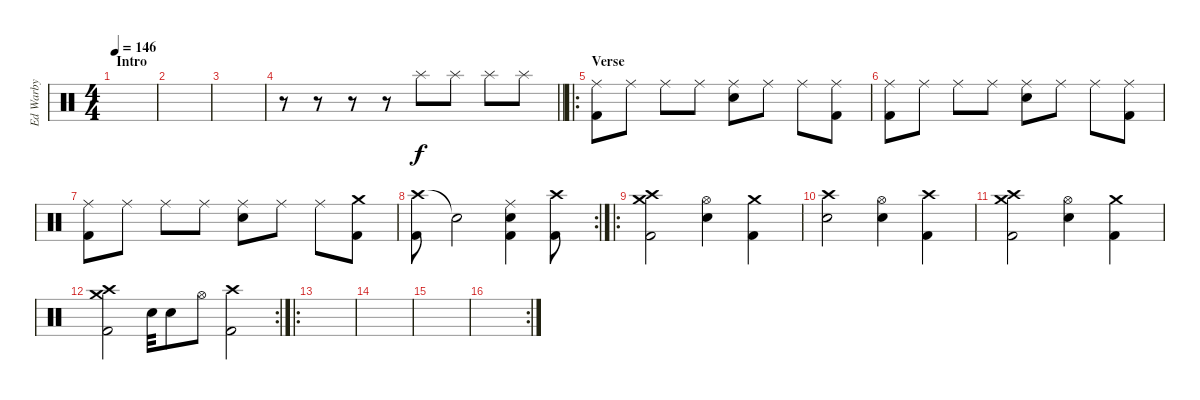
\track ("Ed Warby" "Ed Warby") {instrument percussion}
\staff {score}
\articulation defaults
\ts (4 4)
\section ("" "Intro")
\tempo 146
\clef neutral
\ks c
|
|
|
\barLineRight lightlight
r.8 r.8 r.8 r.8 "Splash (hit)".8 "Splash (hit)".8 "Splash (hit)".8 "Splash (hit)".8 |
\ro
\section ("" "Verse")
("Ride (middle)" "Kick (hit) 2").8 "Ride (middle)".8 "Ride (middle)".8 "Ride (middle)".8 ("Ride (middle)" "Electric Snare (hit)").8 "Ride (middle)".8 "Ride (middle)".8 ("Ride (middle)" "Kick (hit) 2").8 |
("Ride (middle)" "Kick (hit) 2").8 "Ride (middle)".8 "Ride (middle)".8 "Ride (middle)".8 ("Ride (middle)" "Electric Snare (hit)").8 "Ride (middle)".8 "Ride (middle)".8 ("Ride (middle)" "Kick (hit) 2").8 |
("Ride (middle)" "Kick (hit) 2").8 "Ride (middle)".8 "Ride (middle)".8 "Ride (middle)".8 ("Ride (middle)" "Electric Snare (hit)").8 "Ride (middle)".8 "Ride (middle)".8 ("Crash medium (hit)" "Kick (hit) 2").8 |
\rc 2
("Crash high (hit)" "Kick (hit) 2").8 "Snare (hit)"{t}.2 ("Ride (middle)" "Electric Snare (hit)" "Kick (hit) 2").4 ("Crash high (hit)" "Kick (hit) 2").8 |
\ro
("Crash high (hit)" "Crash medium (hit)" "Kick (hit) 2").2 ("Hi-Hat (open)" "Electric Snare (hit)").4 ("Crash medium (hit)" "Kick (hit) 2").4 |
("Crash high (hit)" "Hand Clap (hit)").2 ("Hi-Hat (open)" "Electric Snare (hit)").4 ("Crash high (hit)" "Kick (hit) 2").4 |
("Crash high (hit)" "Crash medium (hit)" "Kick (hit) 2").2 ("Hi-Hat (open)" "Electric Snare (hit)").4 ("Crash medium (hit)" "Kick (hit) 2").4 |
\rc 2
("Crash high (hit)" "Crash medium (hit)" "Kick (hit) 2").2 "Electric Snare (hit)".32 "Electric Snare (hit)".8 "Hi-Hat (open)".8 ("Kick (hit) 2" "Crash high (hit)").2 |
\ro
|
|
|
\rc 2
